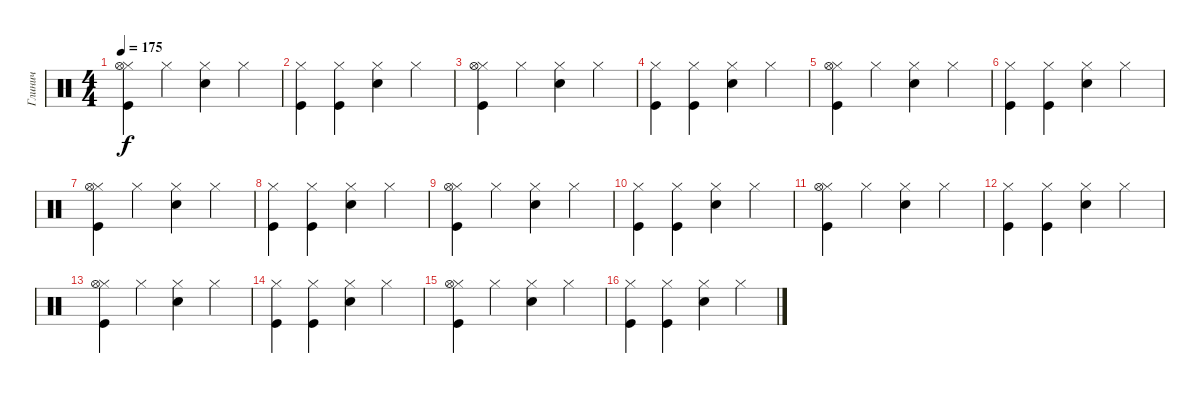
\track ("Глинич" "Глинич") {instrument percussion}
\staff {score}
\articulation defaults
\ts (4 4)
\tempo 175
\clef neutral
\ks c
("Hi-Hat (closed)" "Kick (hit)" "Hi-Hat (open)").4{dy f} "Hi-Hat (closed)".4 ("Hi-Hat (closed)" "Snare (hit) 2").4 "Hi-Hat (closed)".4 |
("Hi-Hat (closed)" "Kick (hit)").4 ("Hi-Hat (closed)" "Kick (hit)").4 ("Hi-Hat (closed)" "Snare (hit) 2").4 "Hi-Hat (closed)".4 |
("Hi-Hat (closed)" "Kick (hit)" "Hi-Hat (open)").4 "Hi-Hat (closed)".4 ("Hi-Hat (closed)" "Snare (hit) 2").4 "Hi-Hat (closed)".4 |
("Hi-Hat (closed)" "Kick (hit)").4 ("Hi-Hat (closed)" "Kick (hit)").4 ("Hi-Hat (closed)" "Snare (hit) 2").4 "Hi-Hat (closed)".4 |
("Hi-Hat (closed)" "Kick (hit)" "Hi-Hat (open)").4 "Hi-Hat (closed)".4 ("Hi-Hat (closed)" "Snare (hit) 2").4 "Hi-Hat (closed)".4 |
("Hi-Hat (closed)" "Kick (hit)").4 ("Hi-Hat (closed)" "Kick (hit)").4 ("Hi-Hat (closed)" "Snare (hit) 2").4 "Hi-Hat (closed)".4 |
("Hi-Hat (closed)" "Kick (hit)" "Hi-Hat (open)").4 "Hi-Hat (closed)".4 ("Hi-Hat (closed)" "Snare (hit) 2").4 "Hi-Hat (closed)".4 |
("Hi-Hat (closed)" "Kick (hit)").4 ("Hi-Hat (closed)" "Kick (hit)").4 ("Hi-Hat (closed)" "Snare (hit) 2").4 "Hi-Hat (closed)".4 |
("Hi-Hat (closed)" "Kick (hit)" "Hi-Hat (open)").4 "Hi-Hat (closed)".4 ("Hi-Hat (closed)" "Snare (hit) 2").4 "Hi-Hat (closed)".4 |
("Hi-Hat (closed)" "Kick (hit)").4 ("Hi-Hat (closed)" "Kick (hit)").4 ("Hi-Hat (closed)" "Snare (hit) 2").4 "Hi-Hat (closed)".4 |
("Hi-Hat (closed)" "Kick (hit)" "Hi-Hat (open)").4 "Hi-Hat (closed)".4 ("Hi-Hat (closed)" "Snare (hit) 2").4 "Hi-Hat (closed)".4 |
("Hi-Hat (closed)" "Kick (hit)").4 ("Hi-Hat (closed)" "Kick (hit)").4 ("Hi-Hat (closed)" "Snare (hit) 2").4 "Hi-Hat (closed)".4 |
("Hi-Hat (closed)" "Kick (hit)" "Hi-Hat (open)").4 "Hi-Hat (closed)".4 ("Hi-Hat (closed)" "Snare (hit) 2").4 "Hi-Hat (closed)".4 |
("Hi-Hat (closed)" "Kick (hit)").4 ("Hi-Hat (closed)" "Kick (hit)").4 ("Hi-Hat (closed)" "Snare (hit) 2").4 "Hi-Hat (closed)".4 |
("Hi-Hat (closed)" "Kick (hit)" "Hi-Hat (open)").4 "Hi-Hat (closed)".4 ("Hi-Hat (closed)" "Snare (hit) 2").4 "Hi-Hat (closed)".4 |
("Hi-Hat (closed)" "Kick (hit)").4 ("Hi-Hat (closed)" "Kick (hit)").4 ("Hi-Hat (closed)" "Snare (hit) 2").4 "Hi-Hat (closed)".4
